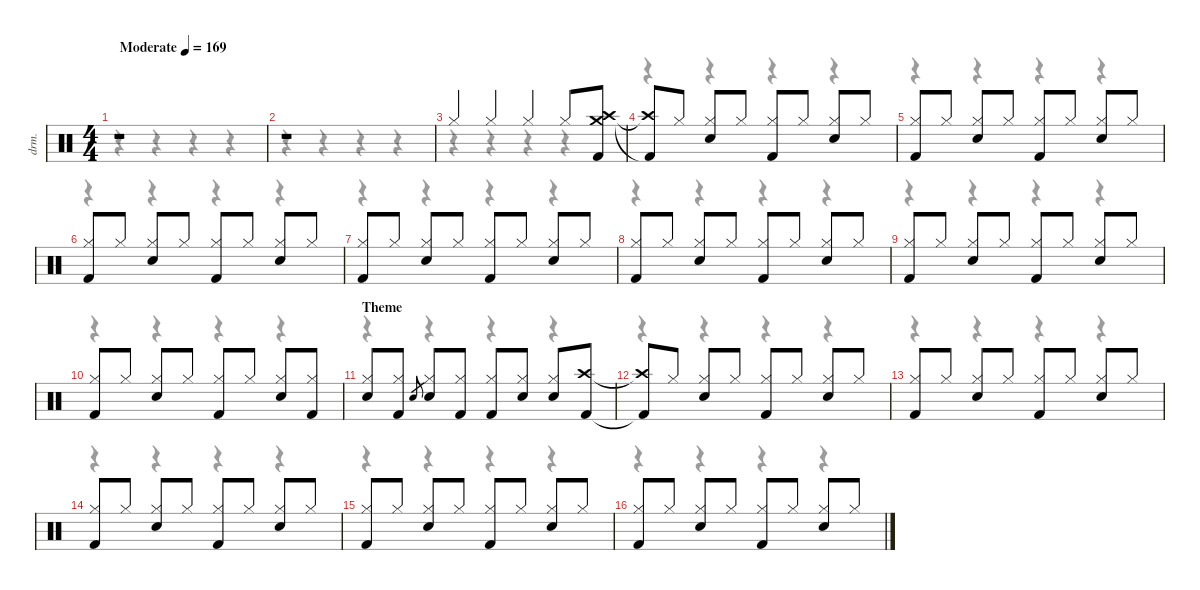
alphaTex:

\defaultSystemsLayout 4
\hideDynamics
\bracketExtendMode nobrackets
\otherSystemsTrackNameOrientation horizontal
\track ("Drums" "drm.") {instrument percussion}
\staff {score}
\articulation defaults
\voice
\ts (4 4)
\beaming (8 2 2 2 2)
\tempo (169 "Moderate")
\clef neutral
\ks c
r.1{dy p} |
r.1 |
"Hi-Hat (closed)".4 "Hi-Hat (closed)".4 "Hi-Hat (closed)".4 "Hi-Hat (closed)".8 ("Crash high (hit)" "Crash medium (hit)" "Kick (hit) 2").8{dy ff} |
("Crash high (hit)"{t} "Kick (hit) 2"{t}).8{dy f} "Hi-Hat (closed)".8 ("Hi-Hat (closed)" "Snare (hit) 2").8 "Hi-Hat (closed)".8 ("Hi-Hat (closed)" "Kick (hit) 2").8 "Hi-Hat (closed)".8 ("Hi-Hat (closed)" "Snare (hit) 2").8 "Hi-Hat (closed)".8 |
("Hi-Hat (closed)" "Kick (hit) 2").8 "Hi-Hat (closed)".8 ("Hi-Hat (closed)" "Snare (hit) 2").8 "Hi-Hat (closed)".8 ("Hi-Hat (closed)" "Kick (hit) 2").8 "Hi-Hat (closed)".8 ("Hi-Hat (closed)" "Snare (hit) 2").8 "Hi-Hat (closed)".8 |
("Hi-Hat (closed)" "Kick (hit) 2").8 "Hi-Hat (closed)".8 ("Hi-Hat (closed)" "Snare (hit) 2").8 "Hi-Hat (closed)".8 ("Hi-Hat (closed)" "Kick (hit) 2").8 "Hi-Hat (closed)".8 ("Hi-Hat (closed)" "Snare (hit) 2").8 "Hi-Hat (closed)".8 |
("Hi-Hat (closed)" "Kick (hit) 2").8 "Hi-Hat (closed)".8 ("Hi-Hat (closed)" "Snare (hit) 2").8 "Hi-Hat (closed)".8 ("Hi-Hat (closed)" "Kick (hit) 2").8 "Hi-Hat (closed)".8 ("Hi-Hat (closed)" "Snare (hit) 2").8 "Hi-Hat (closed)".8 |
("Hi-Hat (closed)" "Kick (hit) 2").8 "Hi-Hat (closed)".8 ("Hi-Hat (closed)" "Snare (hit) 2").8 "Hi-Hat (closed)".8 ("Hi-Hat (closed)" "Kick (hit) 2").8 "Hi-Hat (closed)".8 ("Hi-Hat (closed)" "Snare (hit) 2").8 "Hi-Hat (closed)".8 |
("Hi-Hat (closed)" "Kick (hit) 2").8 "Hi-Hat (closed)".8 ("Hi-Hat (closed)" "Snare (hit) 2").8 "Hi-Hat (closed)".8 ("Hi-Hat (closed)" "Kick (hit) 2").8 "Hi-Hat (closed)".8 ("Hi-Hat (closed)" "Snare (hit) 2").8 "Hi-Hat (closed)".8 |
("Hi-Hat (closed)" "Kick (hit) 2").8 "Hi-Hat (closed)".8 ("Hi-Hat (closed)" "Snare (hit) 2").8 "Hi-Hat (closed)".8 ("Hi-Hat (closed)" "Kick (hit) 2").8 "Hi-Hat (closed)".8 ("Hi-Hat (closed)" "Snare (hit) 2").8 ("Hi-Hat (closed)" "Kick (hit) 2").8 |
\section ("" "Theme")
("Hi-Hat (closed)" "Snare (hit) 2").8 ("Hi-Hat (closed)" "Kick (hit) 2").8 "Snare (hit) 2".8{gr dy mf} ("Hi-Hat (closed)" "Snare (hit) 2").8{dy f} ("Hi-Hat (closed)" "Kick (hit) 2").8 ("Hi-Hat (closed)" "Kick (hit) 2").8 ("Hi-Hat (closed)" "Snare (hit) 2").8 ("Hi-Hat (closed)" "Snare (hit) 2").8 ("Crash high (hit)" "Kick (hit) 2").8 |
("Crash high (hit)"{t} "Kick (hit) 2"{t}).8 "Hi-Hat (closed)".8 ("Hi-Hat (closed)" "Snare (hit) 2").8 "Hi-Hat (closed)".8 ("Hi-Hat (closed)" "Kick (hit) 2").8 "Hi-Hat (closed)".8 ("Hi-Hat (closed)" "Snare (hit) 2").8 "Hi-Hat (closed)".8 |
("Hi-Hat (closed)" "Kick (hit) 2").8 "Hi-Hat (closed)".8 ("Hi-Hat (closed)" "Snare (hit) 2").8 "Hi-Hat (closed)".8 ("Hi-Hat (closed)" "Kick (hit) 2").8 "Hi-Hat (closed)".8 ("Hi-Hat (closed)" "Snare (hit) 2").8 "Hi-Hat (closed)".8 |
("Hi-Hat (closed)" "Kick (hit) 2").8 "Hi-Hat (closed)".8 ("Hi-Hat (closed)" "Snare (hit) 2").8 "Hi-Hat (closed)".8 ("Hi-Hat (closed)" "Kick (hit) 2").8 "Hi-Hat (closed)".8 ("Hi-Hat (closed)" "Snare (hit) 2").8 "Hi-Hat (closed)".8 |
("Hi-Hat (closed)" "Kick (hit) 2").8 "Hi-Hat (closed)".8 ("Hi-Hat (closed)" "Snare (hit) 2").8 "Hi-Hat (closed)".8 ("Hi-Hat (closed)" "Kick (hit) 2").8 "Hi-Hat (closed)".8 ("Hi-Hat (closed)" "Snare (hit) 2").8 "Hi-Hat (closed)".8 |
("Hi-Hat (closed)" "Kick (hit) 2").8 "Hi-Hat (closed)".8 ("Hi-Hat (closed)" "Snare (hit) 2").8 "Hi-Hat (closed)".8 ("Hi-Hat (closed)" "Kick (hit) 2").8 "Hi-Hat (closed)".8 ("Hi-Hat (closed)" "Snare (hit) 2").8 "Hi-Hat (closed)".8
\voice
\clef neutral
\ottava regular
\simile none
\ks c
r.4{dy mf} r.4 r.4 r.4 |
r.4 r.4 r.4 r.4 |
r.4 r.4 r.4 r.4 |
r.4 r.4 r.4 r.4 |
r.4 r.4 r.4 r.4 |
r.4 r.4 r.4 r.4 |
r.4 r.4 r.4 r.4 |
r.4 r.4 r.4 r.4 |
r.4 r.4 r.4 r.4 |
r.4 r.4 r.4 r.4 |
r.4 r.4 r.4 r.4 |
r.4 r.4 r.4 r.4 |
r.4 r.4 r.4 r.4 |
r.4 r.4 r.4 r.4 |
r.4 r.4 r.4 r.4 |
r.4 r.4 r.4 r.4
